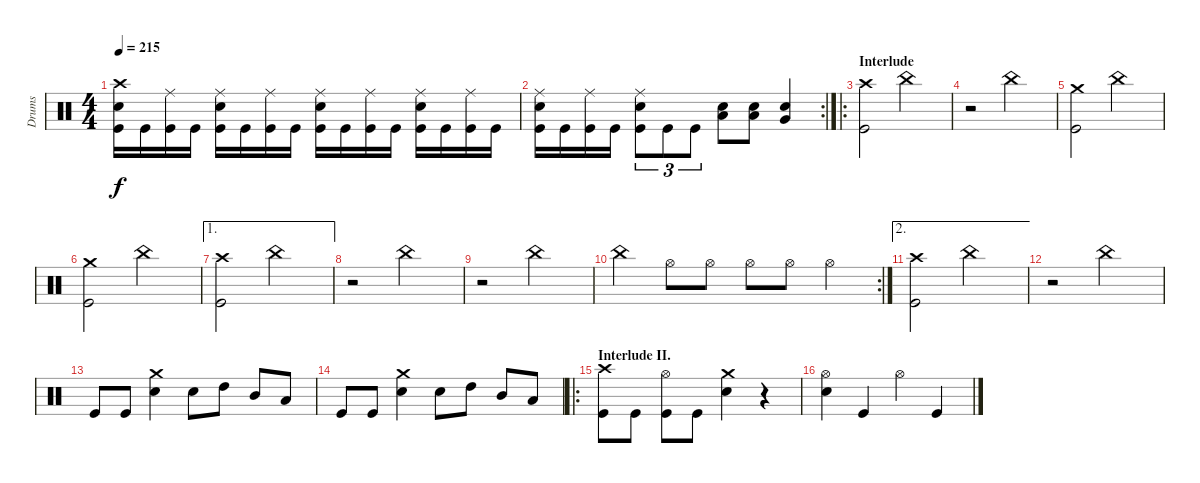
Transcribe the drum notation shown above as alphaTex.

\track ("Drums" "Drums") {instrument percussion}
\staff {score}
\articulation defaults
\ts (4 4)
\tempo 215
\clef neutral
\ks c
("Crash high (hit)" "Electric Snare (hit)" "Kick (hit)").16{dy f} "Kick (hit)".16 ("Ride (middle)" "Kick (hit)").16 "Kick (hit)".16 ("Ride (middle)" "Electric Snare (hit)" "Kick (hit)").16 "Kick (hit)".16 ("Ride (middle)" "Kick (hit)").16 "Kick (hit)".16 ("Ride (middle)" "Electric Snare (hit)" "Kick (hit)").16 "Kick (hit)".16 ("Ride (middle)" "Kick (hit)").16 "Kick (hit)".16 ("Ride (middle)" "Electric Snare (hit)" "Kick (hit)").16 "Kick (hit)".16 ("Ride (middle)" "Kick (hit)").16 "Kick (hit)".16 |
\rc 2
("Ride (middle)" "Electric Snare (hit)" "Kick (hit)").16 "Kick (hit)".16 ("Ride (middle)" "Kick (hit)").16 "Kick (hit)".16 ("Ride (middle)" "Electric Snare (hit)" "Kick (hit)").8{tu (3 2)} "Kick (hit)".8{tu (3 2)} "Kick (hit)".8{tu (3 2)} ("Low Tom (hit)" "Electric Snare (hit)").8 ("Low Tom (hit)" "Electric Snare (hit)").8 ("Very Low Tom (hit)" "Electric Snare (hit)").4 |
\ro
\section ("" "Interlude")
("Crash high (hit)" "Kick (hit)").2 "China (hit)".2 |
r.2 "China (hit)".2 |
("Crash medium (hit)" "Kick (hit)").2 "China (hit)".2 |
("Crash medium (hit)" "Kick (hit)").2 "China (hit)".2 |
\ae 1
("Crash high (hit)" "Kick (hit)").2 "China (hit)".2 |
r.2 "China (hit)".2 |
r.2 "China (hit)".2 |
\rc 2 "China (hit)".4 "Hi-Hat (open)".8 "Hi-Hat (open)".8 "Hi-Hat (open)".8 "Hi-Hat (open)".8 "Hi-Hat (open)".4
|
\ae 2
("Crash high (hit)" "Kick (hit)").2 "China (hit)".2 |
r.2 "China (hit)".2 |
"Kick (hit)".8 "Kick (hit)".8 ("Crash medium (hit)" "Electric Snare (hit)").4 "Electric Snare (hit)".8 "High Tom (hit)".8 "Mid Tom (hit)".8 "Low Tom (hit)".8 |
"Kick (hit)".8 "Kick (hit)".8 ("Crash medium (hit)" "Electric Snare (hit)").4 "Electric Snare (hit)".8 "High Tom (hit)".8 "Mid Tom (hit)".8 "Low Tom (hit)".8 |
\ro
\section ("" "Interlude II.")
("Crash high (hit)" "Kick (hit)").8 "Kick (hit)".8 ("Hi-Hat (open)" "Kick (hit)").8 "Kick (hit)".8 ("Crash medium (hit)" "Electric Snare (hit)").4 r.4 |
("Hi-Hat (open)" "Electric Snare (hit)").4 "Kick (hit)".4 "Hi-Hat (open)".4 "Kick (hit)".4
